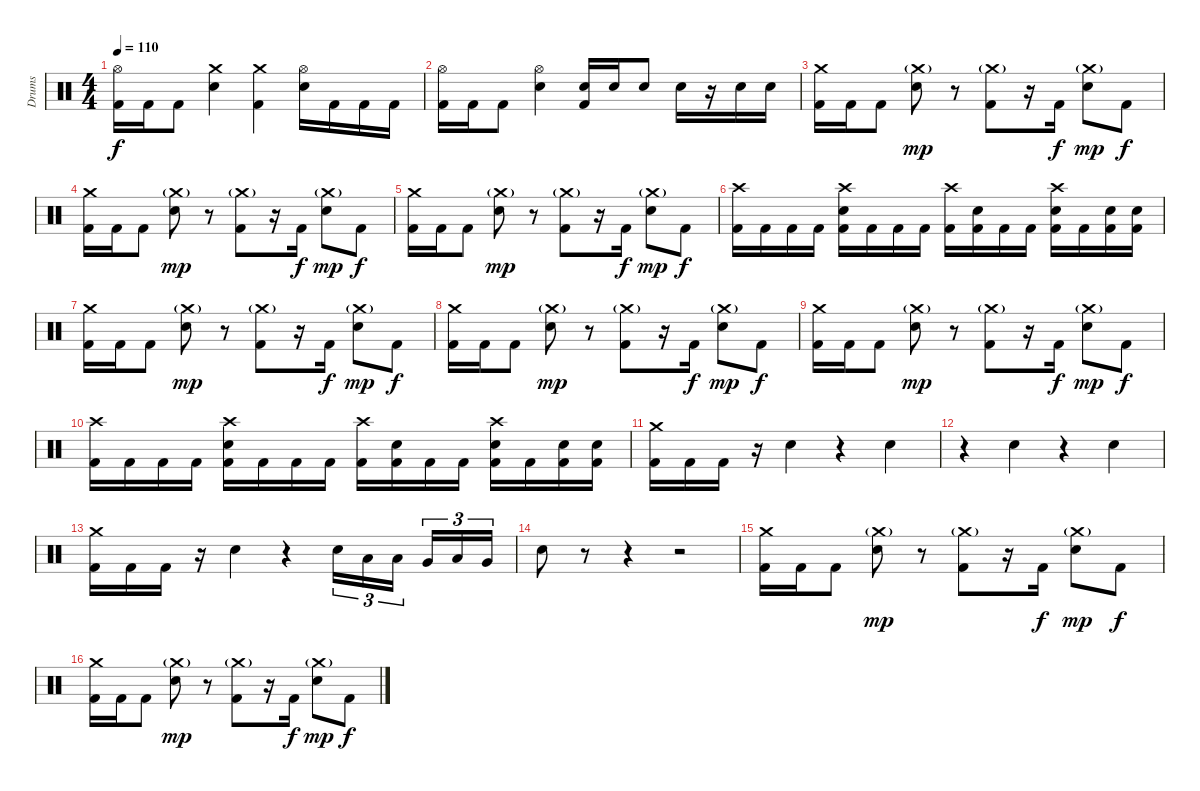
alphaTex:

\track ("Drums" "Drums") {instrument percussion}
\staff {score}
\articulation defaults
\ts (4 4)
\tempo 110
\clef neutral
\ks c
("Hi-Hat (open)" "Kick (hit) 2").16{dy f} "Kick (hit) 2".16 "Kick (hit) 2".8 ("Crash medium (hit)" "Electric Snare (hit)").4 ("Crash medium (hit)" "Kick (hit) 2").4 ("Hi-Hat (open)" "Electric Snare (hit)").16 "Kick (hit) 2".16 "Kick (hit) 2".16 "Kick (hit) 2".16 |
("Hi-Hat (open)" "Kick (hit) 2").16 "Kick (hit) 2".16 "Kick (hit) 2".8 ("Hi-Hat (open)" "Electric Snare (hit)").4 ("Electric Snare (hit)" "Kick (hit) 2").16 "Electric Snare (hit)".16 "Electric Snare (hit)".8 "Electric Snare (hit)".16 r.16 "Electric Snare (hit)".16 "Electric Snare (hit)".16 |
("Crash medium (hit)" "Kick (hit) 2").16 "Kick (hit) 2".16 "Kick (hit) 2".8 ("Crash medium (hit)"{g} "Electric Snare (hit)").8{dy mp} r.8 ("Crash medium (hit)"{g} "Kick (hit) 2").8 r.16 "Kick (hit) 2".16{dy f} ("Crash medium (hit)"{g} "Electric Snare (hit)").8{dy mp} "Kick (hit) 2".8{dy f} |
("Crash medium (hit)" "Kick (hit) 2").16 "Kick (hit) 2".16 "Kick (hit) 2".8 ("Crash medium (hit)"{g} "Electric Snare (hit)").8{dy mp} r.8 ("Crash medium (hit)"{g} "Kick (hit) 2").8 r.16 "Kick (hit) 2".16{dy f} ("Crash medium (hit)"{g} "Electric Snare (hit)").8{dy mp} "Kick (hit) 2".8{dy f} |
("Crash medium (hit)" "Kick (hit) 2").16 "Kick (hit) 2".16 "Kick (hit) 2".8 ("Crash medium (hit)"{g} "Electric Snare (hit)").8{dy mp} r.8 ("Crash medium (hit)"{g} "Kick (hit) 2").8 r.16 "Kick (hit) 2".16{dy f} ("Crash medium (hit)"{g} "Electric Snare (hit)").8{dy mp} "Kick (hit) 2".8{dy f} |
("Crash high (hit)" "Kick (hit) 2").16 "Kick (hit) 2".16 "Kick (hit) 2".16 "Kick (hit) 2".16 ("Crash high (hit)" "Electric Snare (hit)" "Kick (hit) 2").16 "Kick (hit) 2".16 "Kick (hit) 2".16 "Kick (hit) 2".16 ("Crash high (hit)" "Kick (hit) 2").16 ("Electric Snare (hit)" "Kick (hit) 2").16 "Kick (hit) 2".16 "Kick (hit) 2".16 ("Crash high (hit)" "Electric Snare (hit)" "Kick (hit) 2").16 "Kick (hit) 2".16 ("Electric Snare (hit)" "Kick (hit) 2").16 ("Electric Snare (hit)" "Kick (hit) 2").16 |
("Crash medium (hit)" "Kick (hit) 2").16 "Kick (hit) 2".16 "Kick (hit) 2".8 ("Crash medium (hit)"{g} "Electric Snare (hit)").8{dy mp} r.8 ("Crash medium (hit)"{g} "Kick (hit) 2").8 r.16 "Kick (hit) 2".16{dy f} ("Crash medium (hit)"{g} "Electric Snare (hit)").8{dy mp} "Kick (hit) 2".8{dy f} |
("Crash medium (hit)" "Kick (hit) 2").16 "Kick (hit) 2".16 "Kick (hit) 2".8 ("Crash medium (hit)"{g} "Electric Snare (hit)").8{dy mp} r.8 ("Crash medium (hit)"{g} "Kick (hit) 2").8 r.16 "Kick (hit) 2".16{dy f} ("Crash medium (hit)"{g} "Electric Snare (hit)").8{dy mp} "Kick (hit) 2".8{dy f} |
("Crash medium (hit)" "Kick (hit) 2").16 "Kick (hit) 2".16 "Kick (hit) 2".8 ("Crash medium (hit)"{g} "Electric Snare (hit)").8{dy mp} r.8 ("Crash medium (hit)"{g} "Kick (hit) 2").8 r.16 "Kick (hit) 2".16{dy f} ("Crash medium (hit)"{g} "Electric Snare (hit)").8{dy mp} "Kick (hit) 2".8{dy f} |
("Crash high (hit)" "Kick (hit) 2").16 "Kick (hit) 2".16 "Kick (hit) 2".16 "Kick (hit) 2".16 ("Crash high (hit)" "Electric Snare (hit)" "Kick (hit) 2").16 "Kick (hit) 2".16 "Kick (hit) 2".16 "Kick (hit) 2".16 ("Crash high (hit)" "Kick (hit) 2").16 ("Electric Snare (hit)" "Kick (hit) 2").16 "Kick (hit) 2".16 "Kick (hit) 2".16 ("Crash high (hit)" "Electric Snare (hit)" "Kick (hit) 2").16 "Kick (hit) 2".16 ("Electric Snare (hit)" "Kick (hit) 2").16 ("Electric Snare (hit)" "Kick (hit) 2").16 |
("Crash medium (hit)" "Kick (hit) 2").16 "Kick (hit) 2".16 "Kick (hit) 2".16 r.16 "Electric Snare (hit)".4 r.4 "Electric Snare (hit)".4 |
r.4 "Electric Snare (hit)".4 r.4 "Electric Snare (hit)".4 |
("Crash medium (hit)" "Kick (hit) 2").16 "Kick (hit) 2".16 "Kick (hit) 2".16 r.16 "Electric Snare (hit)".4 r.4 "Electric Snare (hit)".16{tu (3 2)} "Low Floor Tom (hit)".16{tu (3 2)} "Low Tom (hit)".16{tu (3 2)} "Very Low Tom (hit)".16{tu (3 2)} "Low Tom (hit)".16{tu (3 2)} "Very Low Tom (hit)".16{tu (3 2)} |
"Electric Snare (hit)".8 r.8 r.4 r.2 |
("Crash medium (hit)" "Kick (hit) 2").16 "Kick (hit) 2".16 "Kick (hit) 2".8 ("Crash medium (hit)"{g} "Electric Snare (hit)").8{dy mp} r.8 ("Crash medium (hit)"{g} "Kick (hit) 2").8 r.16 "Kick (hit) 2".16{dy f} ("Crash medium (hit)"{g} "Electric Snare (hit)").8{dy mp} "Kick (hit) 2".8{dy f} |
("Crash medium (hit)" "Kick (hit) 2").16 "Kick (hit) 2".16 "Kick (hit) 2".8 ("Crash medium (hit)"{g} "Electric Snare (hit)").8{dy mp} r.8 ("Crash medium (hit)"{g} "Kick (hit) 2").8 r.16 "Kick (hit) 2".16{dy f} ("Crash medium (hit)"{g} "Electric Snare (hit)").8{dy mp} "Kick (hit) 2".8{dy f}
